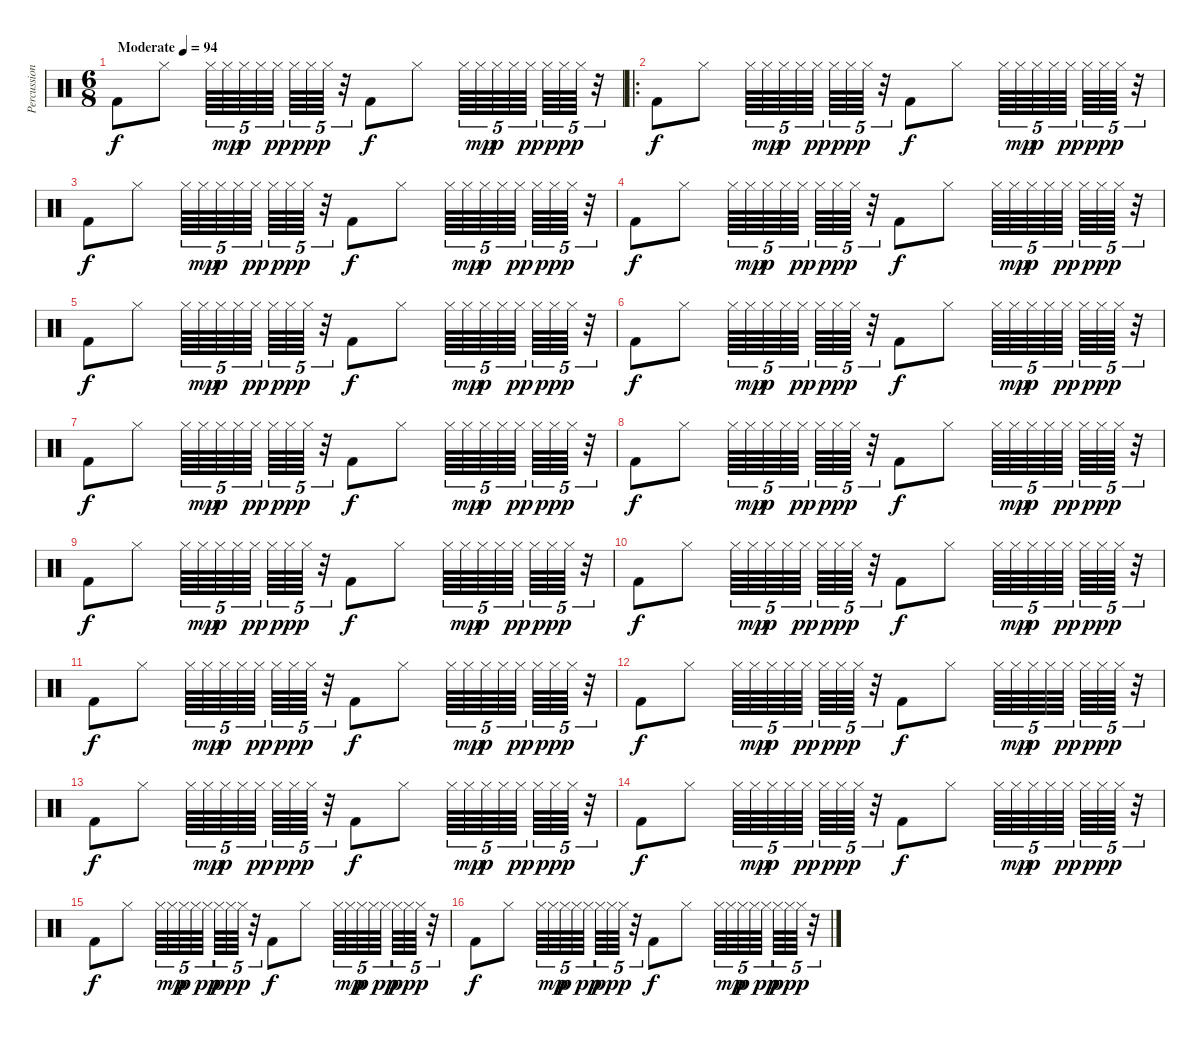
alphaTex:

\track ("Percussion" "Percussion") {instrument percussion}
\staff {score}
\articulation defaults
\ts (6 8)
\tempo (94 "Moderate")
\clef neutral
\ks c "Kick (hit) 2".8{dy f} "Hi-Hat (closed)".8 "Hi-Hat (closed)".64{tu (5 4)} "Hi-Hat (closed)".64{tu (5 4) dy mp} "Hi-Hat (closed)".64{tu (5 4) dy p} "Hi-Hat (closed)".64{tu (5 4)} "Hi-Hat (closed)".64{tu (5 4) dy pp beam splitsecondary} "Hi-Hat (closed)".64{tu (5 4)} "Hi-Hat (closed)".64{tu (5 4) dy ppp} "Hi-Hat (closed)".64{tu (5 4)}
r.32{tu (5 4)} "Kick (hit) 2".8{dy f} "Hi-Hat (closed)".8 "Hi-Hat (closed)".64{tu (5 4)} "Hi-Hat (closed)".64{tu (5 4) dy mp} "Hi-Hat (closed)".64{tu (5 4) dy p} "Hi-Hat (closed)".64{tu (5 4)} "Hi-Hat (closed)".64{tu (5 4) dy pp beam splitsecondary} "Hi-Hat (closed)".64{tu (5 4)} "Hi-Hat (closed)".64{tu (5 4) dy ppp} "Hi-Hat (closed)".64{tu (5 4)} r.32{tu (5 4)} |
\ro "Kick (hit) 2".8{dy f} "Hi-Hat (closed)".8 "Hi-Hat (closed)".64{tu (5 4)} "Hi-Hat (closed)".64{tu (5 4) dy mp} "Hi-Hat (closed)".64{tu (5 4) dy p} "Hi-Hat (closed)".64{tu (5 4)} "Hi-Hat (closed)".64{tu (5 4) dy pp beam splitsecondary} "Hi-Hat (closed)".64{tu (5 4)} "Hi-Hat (closed)".64{tu (5 4) dy ppp} "Hi-Hat (closed)".64{tu (5 4)}
r.32{tu (5 4)} "Kick (hit) 2".8{dy f} "Hi-Hat (closed)".8 "Hi-Hat (closed)".64{tu (5 4)} "Hi-Hat (closed)".64{tu (5 4) dy mp} "Hi-Hat (closed)".64{tu (5 4) dy p} "Hi-Hat (closed)".64{tu (5 4)} "Hi-Hat (closed)".64{tu (5 4) dy pp beam splitsecondary} "Hi-Hat (closed)".64{tu (5 4)} "Hi-Hat (closed)".64{tu (5 4) dy ppp} "Hi-Hat (closed)".64{tu (5 4)} r.32{tu (5 4)} |
"Kick (hit) 2".8{dy f} "Hi-Hat (closed)".8 "Hi-Hat (closed)".64{tu (5 4)} "Hi-Hat (closed)".64{tu (5 4) dy mp} "Hi-Hat (closed)".64{tu (5 4) dy p} "Hi-Hat (closed)".64{tu (5 4)} "Hi-Hat (closed)".64{tu (5 4) dy pp beam splitsecondary} "Hi-Hat (closed)".64{tu (5 4)} "Hi-Hat (closed)".64{tu (5 4) dy ppp} "Hi-Hat (closed)".64{tu (5 4)} r.32{tu (5 4)} "Kick (hit) 2".8{dy f} "Hi-Hat (closed)".8 "Hi-Hat (closed)".64{tu (5 4)} "Hi-Hat (closed)".64{tu (5 4) dy mp} "Hi-Hat (closed)".64{tu (5 4) dy p} "Hi-Hat (closed)".64{tu (5 4)} "Hi-Hat (closed)".64{tu (5 4) dy pp beam splitsecondary} "Hi-Hat (closed)".64{tu (5 4)} "Hi-Hat (closed)".64{tu (5 4) dy ppp} "Hi-Hat (closed)".64{tu (5 4)} r.32{tu (5 4)} |
"Kick (hit) 2".8{dy f} "Hi-Hat (closed)".8 "Hi-Hat (closed)".64{tu (5 4)} "Hi-Hat (closed)".64{tu (5 4) dy mp} "Hi-Hat (closed)".64{tu (5 4) dy p} "Hi-Hat (closed)".64{tu (5 4)} "Hi-Hat (closed)".64{tu (5 4) dy pp beam splitsecondary} "Hi-Hat (closed)".64{tu (5 4)} "Hi-Hat (closed)".64{tu (5 4) dy ppp} "Hi-Hat (closed)".64{tu (5 4)} r.32{tu (5 4)} "Kick (hit) 2".8{dy f} "Hi-Hat (closed)".8 "Hi-Hat (closed)".64{tu (5 4)} "Hi-Hat (closed)".64{tu (5 4) dy mp} "Hi-Hat (closed)".64{tu (5 4) dy p} "Hi-Hat (closed)".64{tu (5 4)} "Hi-Hat (closed)".64{tu (5 4) dy pp beam splitsecondary} "Hi-Hat (closed)".64{tu (5 4)} "Hi-Hat (closed)".64{tu (5 4) dy ppp} "Hi-Hat (closed)".64{tu (5 4)} r.32{tu (5 4)} |
"Kick (hit) 2".8{dy f} "Hi-Hat (closed)".8 "Hi-Hat (closed)".64{tu (5 4)} "Hi-Hat (closed)".64{tu (5 4) dy mp} "Hi-Hat (closed)".64{tu (5 4) dy p} "Hi-Hat (closed)".64{tu (5 4)} "Hi-Hat (closed)".64{tu (5 4) dy pp beam splitsecondary} "Hi-Hat (closed)".64{tu (5 4)} "Hi-Hat (closed)".64{tu (5 4) dy ppp} "Hi-Hat (closed)".64{tu (5 4)} r.32{tu (5 4)} "Kick (hit) 2".8{dy f} "Hi-Hat (closed)".8 "Hi-Hat (closed)".64{tu (5 4)} "Hi-Hat (closed)".64{tu (5 4) dy mp} "Hi-Hat (closed)".64{tu (5 4) dy p} "Hi-Hat (closed)".64{tu (5 4)} "Hi-Hat (closed)".64{tu (5 4) dy pp beam splitsecondary} "Hi-Hat (closed)".64{tu (5 4)} "Hi-Hat (closed)".64{tu (5 4) dy ppp} "Hi-Hat (closed)".64{tu (5 4)} r.32{tu (5 4)} |
"Kick (hit) 2".8{dy f} "Hi-Hat (closed)".8 "Hi-Hat (closed)".64{tu (5 4)} "Hi-Hat (closed)".64{tu (5 4) dy mp} "Hi-Hat (closed)".64{tu (5 4) dy p} "Hi-Hat (closed)".64{tu (5 4)} "Hi-Hat (closed)".64{tu (5 4) dy pp beam splitsecondary} "Hi-Hat (closed)".64{tu (5 4)} "Hi-Hat (closed)".64{tu (5 4) dy ppp} "Hi-Hat (closed)".64{tu (5 4)} r.32{tu (5 4)} "Kick (hit) 2".8{dy f} "Hi-Hat (closed)".8 "Hi-Hat (closed)".64{tu (5 4)} "Hi-Hat (closed)".64{tu (5 4) dy mp} "Hi-Hat (closed)".64{tu (5 4) dy p} "Hi-Hat (closed)".64{tu (5 4)} "Hi-Hat (closed)".64{tu (5 4) dy pp beam splitsecondary} "Hi-Hat (closed)".64{tu (5 4)} "Hi-Hat (closed)".64{tu (5 4) dy ppp} "Hi-Hat (closed)".64{tu (5 4)} r.32{tu (5 4)} |
"Kick (hit) 2".8{dy f} "Hi-Hat (closed)".8 "Hi-Hat (closed)".64{tu (5 4)} "Hi-Hat (closed)".64{tu (5 4) dy mp} "Hi-Hat (closed)".64{tu (5 4) dy p} "Hi-Hat (closed)".64{tu (5 4)} "Hi-Hat (closed)".64{tu (5 4) dy pp beam splitsecondary} "Hi-Hat (closed)".64{tu (5 4)} "Hi-Hat (closed)".64{tu (5 4) dy ppp} "Hi-Hat (closed)".64{tu (5 4)} r.32{tu (5 4)} "Kick (hit) 2".8{dy f} "Hi-Hat (closed)".8 "Hi-Hat (closed)".64{tu (5 4)} "Hi-Hat (closed)".64{tu (5 4) dy mp} "Hi-Hat (closed)".64{tu (5 4) dy p} "Hi-Hat (closed)".64{tu (5 4)} "Hi-Hat (closed)".64{tu (5 4) dy pp beam splitsecondary} "Hi-Hat (closed)".64{tu (5 4)} "Hi-Hat (closed)".64{tu (5 4) dy ppp} "Hi-Hat (closed)".64{tu (5 4)} r.32{tu (5 4)} |
"Kick (hit) 2".8{dy f} "Hi-Hat (closed)".8 "Hi-Hat (closed)".64{tu (5 4)} "Hi-Hat (closed)".64{tu (5 4) dy mp} "Hi-Hat (closed)".64{tu (5 4) dy p} "Hi-Hat (closed)".64{tu (5 4)} "Hi-Hat (closed)".64{tu (5 4) dy pp beam splitsecondary} "Hi-Hat (closed)".64{tu (5 4)} "Hi-Hat (closed)".64{tu (5 4) dy ppp} "Hi-Hat (closed)".64{tu (5 4)} r.32{tu (5 4)} "Kick (hit) 2".8{dy f} "Hi-Hat (closed)".8 "Hi-Hat (closed)".64{tu (5 4)} "Hi-Hat (closed)".64{tu (5 4) dy mp} "Hi-Hat (closed)".64{tu (5 4) dy p} "Hi-Hat (closed)".64{tu (5 4)} "Hi-Hat (closed)".64{tu (5 4) dy pp beam splitsecondary} "Hi-Hat (closed)".64{tu (5 4)} "Hi-Hat (closed)".64{tu (5 4) dy ppp} "Hi-Hat (closed)".64{tu (5 4)} r.32{tu (5 4)} |
"Kick (hit) 2".8{dy f} "Hi-Hat (closed)".8 "Hi-Hat (closed)".64{tu (5 4)} "Hi-Hat (closed)".64{tu (5 4) dy mp} "Hi-Hat (closed)".64{tu (5 4) dy p} "Hi-Hat (closed)".64{tu (5 4)} "Hi-Hat (closed)".64{tu (5 4) dy pp beam splitsecondary} "Hi-Hat (closed)".64{tu (5 4)} "Hi-Hat (closed)".64{tu (5 4) dy ppp} "Hi-Hat (closed)".64{tu (5 4)} r.32{tu (5 4)} "Kick (hit) 2".8{dy f} "Hi-Hat (closed)".8 "Hi-Hat (closed)".64{tu (5 4)} "Hi-Hat (closed)".64{tu (5 4) dy mp} "Hi-Hat (closed)".64{tu (5 4) dy p} "Hi-Hat (closed)".64{tu (5 4)} "Hi-Hat (closed)".64{tu (5 4) dy pp beam splitsecondary} "Hi-Hat (closed)".64{tu (5 4)} "Hi-Hat (closed)".64{tu (5 4) dy ppp} "Hi-Hat (closed)".64{tu (5 4)} r.32{tu (5 4)} |
"Kick (hit) 2".8{dy f} "Hi-Hat (closed)".8 "Hi-Hat (closed)".64{tu (5 4)} "Hi-Hat (closed)".64{tu (5 4) dy mp} "Hi-Hat (closed)".64{tu (5 4) dy p} "Hi-Hat (closed)".64{tu (5 4)} "Hi-Hat (closed)".64{tu (5 4) dy pp beam splitsecondary} "Hi-Hat (closed)".64{tu (5 4)} "Hi-Hat (closed)".64{tu (5 4) dy ppp} "Hi-Hat (closed)".64{tu (5 4)} r.32{tu (5 4)} "Kick (hit) 2".8{dy f} "Hi-Hat (closed)".8 "Hi-Hat (closed)".64{tu (5 4)} "Hi-Hat (closed)".64{tu (5 4) dy mp} "Hi-Hat (closed)".64{tu (5 4) dy p} "Hi-Hat (closed)".64{tu (5 4)} "Hi-Hat (closed)".64{tu (5 4) dy pp beam splitsecondary} "Hi-Hat (closed)".64{tu (5 4)} "Hi-Hat (closed)".64{tu (5 4) dy ppp} "Hi-Hat (closed)".64{tu (5 4)} r.32{tu (5 4)} |
"Kick (hit) 2".8{dy f} "Hi-Hat (closed)".8 "Hi-Hat (closed)".64{tu (5 4)} "Hi-Hat (closed)".64{tu (5 4) dy mp} "Hi-Hat (closed)".64{tu (5 4) dy p} "Hi-Hat (closed)".64{tu (5 4)} "Hi-Hat (closed)".64{tu (5 4) dy pp beam splitsecondary} "Hi-Hat (closed)".64{tu (5 4)} "Hi-Hat (closed)".64{tu (5 4) dy ppp} "Hi-Hat (closed)".64{tu (5 4)} r.32{tu (5 4)} "Kick (hit) 2".8{dy f} "Hi-Hat (closed)".8 "Hi-Hat (closed)".64{tu (5 4)} "Hi-Hat (closed)".64{tu (5 4) dy mp} "Hi-Hat (closed)".64{tu (5 4) dy p} "Hi-Hat (closed)".64{tu (5 4)} "Hi-Hat (closed)".64{tu (5 4) dy pp beam splitsecondary} "Hi-Hat (closed)".64{tu (5 4)} "Hi-Hat (closed)".64{tu (5 4) dy ppp} "Hi-Hat (closed)".64{tu (5 4)} r.32{tu (5 4)} |
"Kick (hit) 2".8{dy f} "Hi-Hat (closed)".8 "Hi-Hat (closed)".64{tu (5 4)} "Hi-Hat (closed)".64{tu (5 4) dy mp} "Hi-Hat (closed)".64{tu (5 4) dy p} "Hi-Hat (closed)".64{tu (5 4)} "Hi-Hat (closed)".64{tu (5 4) dy pp beam splitsecondary} "Hi-Hat (closed)".64{tu (5 4)} "Hi-Hat (closed)".64{tu (5 4) dy ppp} "Hi-Hat (closed)".64{tu (5 4)} r.32{tu (5 4)} "Kick (hit) 2".8{dy f} "Hi-Hat (closed)".8 "Hi-Hat (closed)".64{tu (5 4)} "Hi-Hat (closed)".64{tu (5 4) dy mp} "Hi-Hat (closed)".64{tu (5 4) dy p} "Hi-Hat (closed)".64{tu (5 4)} "Hi-Hat (closed)".64{tu (5 4) dy pp beam splitsecondary} "Hi-Hat (closed)".64{tu (5 4)} "Hi-Hat (closed)".64{tu (5 4) dy ppp} "Hi-Hat (closed)".64{tu (5 4)} r.32{tu (5 4)} |
"Kick (hit) 2".8{dy f} "Hi-Hat (closed)".8 "Hi-Hat (closed)".64{tu (5 4)} "Hi-Hat (closed)".64{tu (5 4) dy mp} "Hi-Hat (closed)".64{tu (5 4) dy p} "Hi-Hat (closed)".64{tu (5 4)} "Hi-Hat (closed)".64{tu (5 4) dy pp beam splitsecondary} "Hi-Hat (closed)".64{tu (5 4)} "Hi-Hat (closed)".64{tu (5 4) dy ppp} "Hi-Hat (closed)".64{tu (5 4)} r.32{tu (5 4)} "Kick (hit) 2".8{dy f} "Hi-Hat (closed)".8 "Hi-Hat (closed)".64{tu (5 4)} "Hi-Hat (closed)".64{tu (5 4) dy mp} "Hi-Hat (closed)".64{tu (5 4) dy p} "Hi-Hat (closed)".64{tu (5 4)} "Hi-Hat (closed)".64{tu (5 4) dy pp beam splitsecondary} "Hi-Hat (closed)".64{tu (5 4)} "Hi-Hat (closed)".64{tu (5 4) dy ppp} "Hi-Hat (closed)".64{tu (5 4)} r.32{tu (5 4)} |
"Kick (hit) 2".8{dy f} "Hi-Hat (closed)".8 "Hi-Hat (closed)".64{tu (5 4)} "Hi-Hat (closed)".64{tu (5 4) dy mp} "Hi-Hat (closed)".64{tu (5 4) dy p} "Hi-Hat (closed)".64{tu (5 4)} "Hi-Hat (closed)".64{tu (5 4) dy pp beam splitsecondary} "Hi-Hat (closed)".64{tu (5 4)} "Hi-Hat (closed)".64{tu (5 4) dy ppp} "Hi-Hat (closed)".64{tu (5 4)} r.32{tu (5 4)} "Kick (hit) 2".8{dy f} "Hi-Hat (closed)".8 "Hi-Hat (closed)".64{tu (5 4)} "Hi-Hat (closed)".64{tu (5 4) dy mp} "Hi-Hat (closed)".64{tu (5 4) dy p} "Hi-Hat (closed)".64{tu (5 4)} "Hi-Hat (closed)".64{tu (5 4) dy pp beam splitsecondary} "Hi-Hat (closed)".64{tu (5 4)} "Hi-Hat (closed)".64{tu (5 4) dy ppp} "Hi-Hat (closed)".64{tu (5 4)} r.32{tu (5 4)} |
"Kick (hit) 2".8{dy f} "Hi-Hat (closed)".8 "Hi-Hat (closed)".64{tu (5 4)} "Hi-Hat (closed)".64{tu (5 4) dy mp} "Hi-Hat (closed)".64{tu (5 4) dy p} "Hi-Hat (closed)".64{tu (5 4)} "Hi-Hat (closed)".64{tu (5 4) dy pp beam splitsecondary} "Hi-Hat (closed)".64{tu (5 4)} "Hi-Hat (closed)".64{tu (5 4) dy ppp} "Hi-Hat (closed)".64{tu (5 4)} r.32{tu (5 4)} "Kick (hit) 2".8{dy f} "Hi-Hat (closed)".8 "Hi-Hat (closed)".64{tu (5 4)} "Hi-Hat (closed)".64{tu (5 4) dy mp} "Hi-Hat (closed)".64{tu (5 4) dy p} "Hi-Hat (closed)".64{tu (5 4)} "Hi-Hat (closed)".64{tu (5 4) dy pp beam splitsecondary} "Hi-Hat (closed)".64{tu (5 4)} "Hi-Hat (closed)".64{tu (5 4) dy ppp} "Hi-Hat (closed)".64{tu (5 4)} r.32{tu (5 4)} |
"Kick (hit) 2".8{dy f} "Hi-Hat (closed)".8 "Hi-Hat (closed)".64{tu (5 4)} "Hi-Hat (closed)".64{tu (5 4) dy mp} "Hi-Hat (closed)".64{tu (5 4) dy p} "Hi-Hat (closed)".64{tu (5 4)} "Hi-Hat (closed)".64{tu (5 4) dy pp beam splitsecondary} "Hi-Hat (closed)".64{tu (5 4)} "Hi-Hat (closed)".64{tu (5 4) dy ppp} "Hi-Hat (closed)".64{tu (5 4)} r.32{tu (5 4)} "Kick (hit) 2".8{dy f} "Hi-Hat (closed)".8 "Hi-Hat (closed)".64{tu (5 4)} "Hi-Hat (closed)".64{tu (5 4) dy mp} "Hi-Hat (closed)".64{tu (5 4) dy p} "Hi-Hat (closed)".64{tu (5 4)} "Hi-Hat (closed)".64{tu (5 4) dy pp beam splitsecondary} "Hi-Hat (closed)".64{tu (5 4)} "Hi-Hat (closed)".64{tu (5 4) dy ppp} "Hi-Hat (closed)".64{tu (5 4)} r.32{tu (5 4)}
